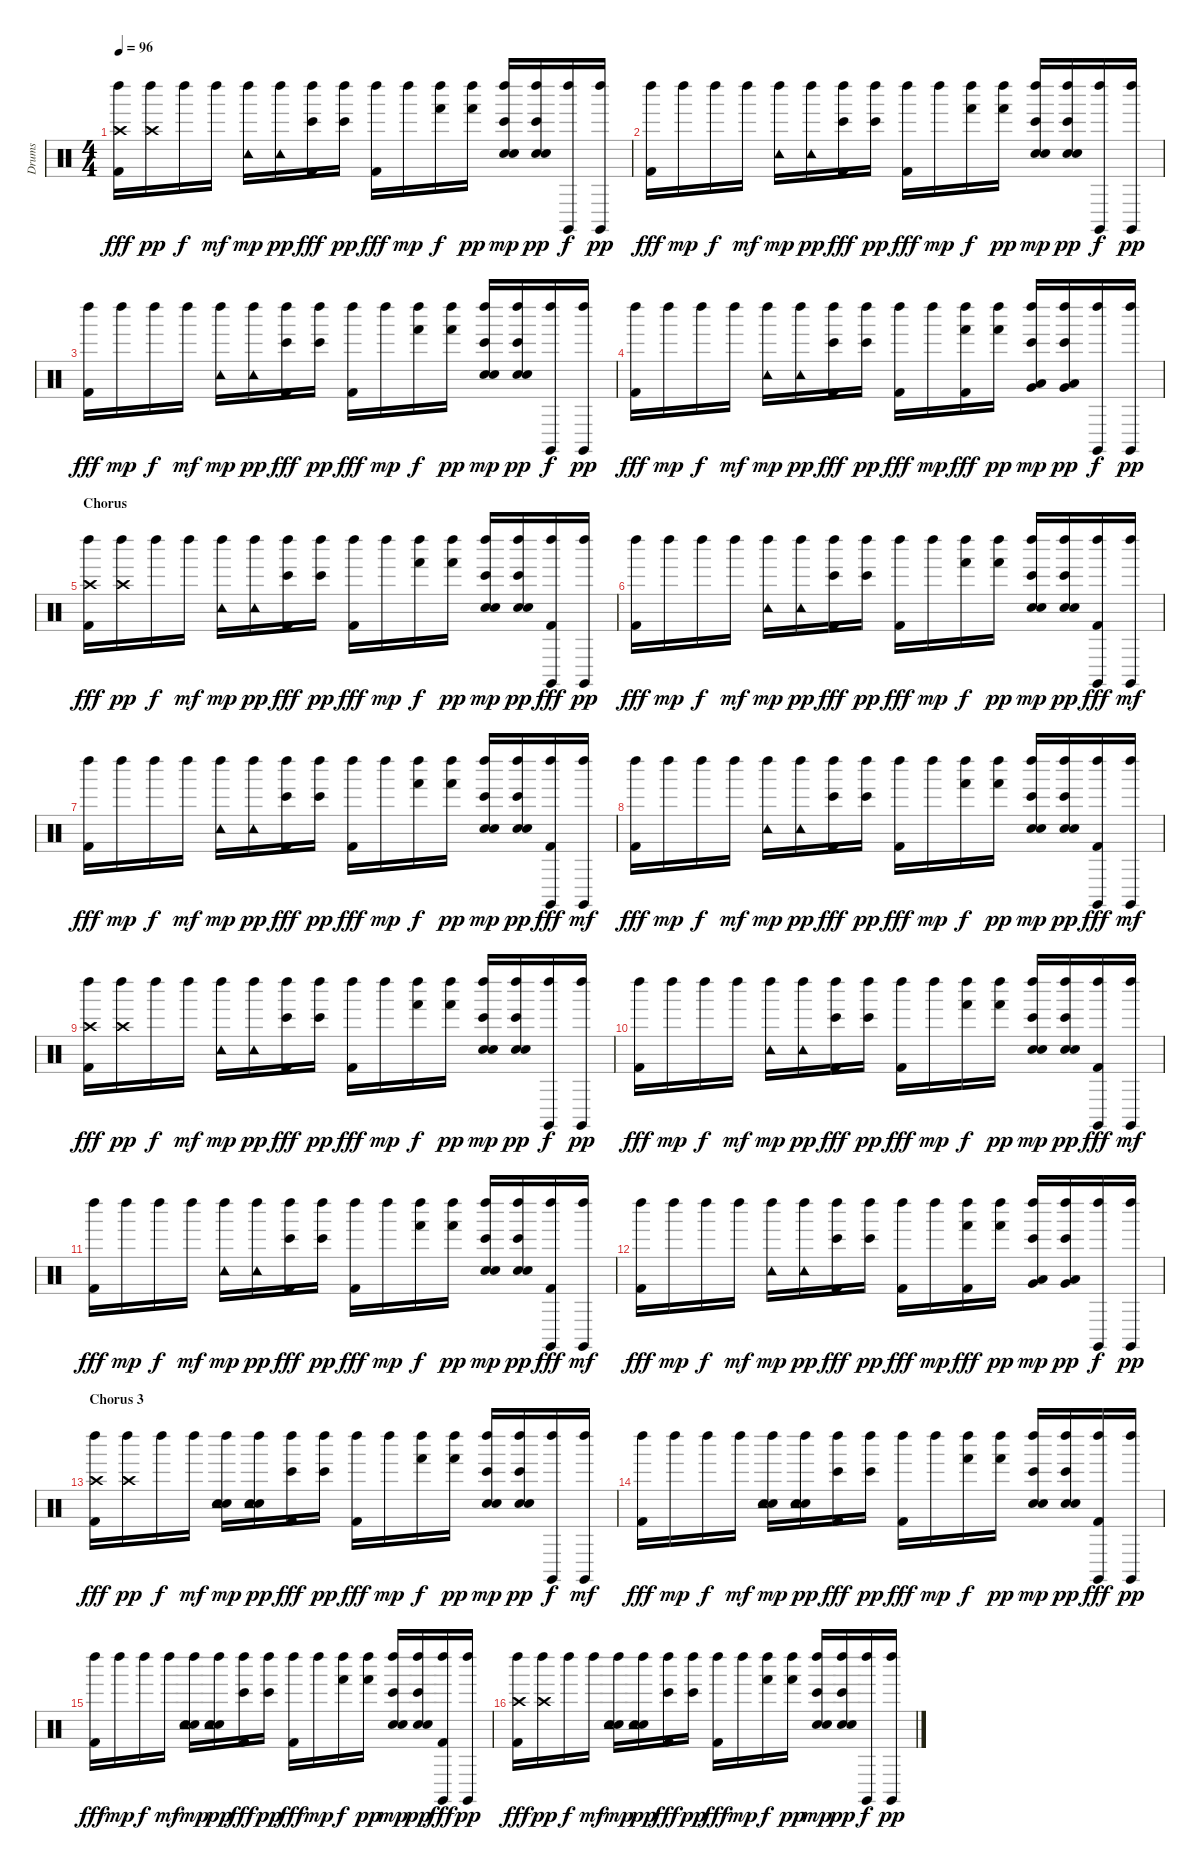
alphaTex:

\track ("Drums" "Drums") {instrument percussion}
\staff {score}
\articulation defaults
\ts (4 4)
\tempo 96
\clef neutral
\ks c
("Left Maraca (hit)" "Crash high (hit)" "Kick (hit) 2").16{dy fff} ("Left Maraca (hit)" "Crash high (hit)").16{dy pp} "Left Maraca (hit)".16{dy f} "Left Maraca (hit)".16{dy mf} ("Left Maraca (hit)" "Tambourine (hit)").16{dy mp} ("Left Maraca (hit)" "Tambourine (hit)").16{dy pp} ("Left Maraca (hit)" "Bongo High (hit)" "Kick (hit) 2").16{dy fff} ("Left Maraca (hit)" "Bongo High (hit)").16{dy pp} ("Left Maraca (hit)" "Kick (hit) 2").16{dy fff} "Left Maraca (hit)".16{dy mp} ("Left Maraca (hit)" "Hand (hit)").16{dy f} ("Left Maraca (hit)" "Hand (hit)").16{dy pp} ("Left Maraca (hit)" "Bongo High (hit)" "Snare (hit) 2" "Electric Snare (hit)").16{dy mp} ("Left Maraca (hit)" "Bongo High (hit)" "Snare (hit) 2" "Electric Snare (hit)").16{dy pp} ("Left Maraca (hit)" "Claves (hit)").16{dy f} ("Left Maraca (hit)" "Claves (hit)").16{dy pp} |
("Left Maraca (hit)" "Kick (hit) 2").16{dy fff} "Left Maraca (hit)".16{dy mp} "Left Maraca (hit)".16{dy f} "Left Maraca (hit)".16{dy mf} ("Left Maraca (hit)" "Tambourine (hit)").16{dy mp} ("Left Maraca (hit)" "Tambourine (hit)").16{dy pp} ("Left Maraca (hit)" "Bongo High (hit)" "Kick (hit) 2").16{dy fff} ("Left Maraca (hit)" "Bongo High (hit)").16{dy pp} ("Left Maraca (hit)" "Kick (hit) 2").16{dy fff} "Left Maraca (hit)".16{dy mp} ("Left Maraca (hit)" "Hand (hit)").16{dy f} ("Left Maraca (hit)" "Hand (hit)").16{dy pp} ("Left Maraca (hit)" "Bongo High (hit)" "Snare (hit) 2" "Electric Snare (hit)").16{dy mp} ("Left Maraca (hit)" "Bongo High (hit)" "Snare (hit) 2" "Electric Snare (hit)").16{dy pp} ("Left Maraca (hit)" "Claves (hit)").16{dy f} ("Left Maraca (hit)" "Claves (hit)").16{dy pp} |
("Left Maraca (hit)" "Kick (hit) 2").16{dy fff} "Left Maraca (hit)".16{dy mp} "Left Maraca (hit)".16{dy f} "Left Maraca (hit)".16{dy mf} ("Left Maraca (hit)" "Tambourine (hit)").16{dy mp} ("Left Maraca (hit)" "Tambourine (hit)").16{dy pp} ("Left Maraca (hit)" "Bongo High (hit)" "Kick (hit) 2").16{dy fff} ("Left Maraca (hit)" "Bongo High (hit)").16{dy pp} ("Left Maraca (hit)" "Kick (hit) 2").16{dy fff} "Left Maraca (hit)".16{dy mp} ("Left Maraca (hit)" "Hand (hit)").16{dy f} ("Left Maraca (hit)" "Hand (hit)").16{dy pp} ("Left Maraca (hit)" "Bongo High (hit)" "Snare (hit) 2" "Electric Snare (hit)").16{dy mp} ("Left Maraca (hit)" "Bongo High (hit)" "Snare (hit) 2" "Electric Snare (hit)").16{dy pp} ("Left Maraca (hit)" "Claves (hit)").16{dy f} ("Left Maraca (hit)" "Claves (hit)").16{dy pp} |
("Left Maraca (hit)" "Kick (hit) 2").16{dy fff} "Left Maraca (hit)".16{dy mp} "Left Maraca (hit)".16{dy f} "Left Maraca (hit)".16{dy mf} ("Left Maraca (hit)" "Tambourine (hit)").16{dy mp} ("Left Maraca (hit)" "Tambourine (hit)").16{dy pp} ("Left Maraca (hit)" "Bongo High (hit)" "Kick (hit) 2").16{dy fff} ("Left Maraca (hit)" "Bongo High (hit)").16{dy pp} ("Left Maraca (hit)" "Kick (hit) 2").16{dy fff} "Left Maraca (hit)".16{dy mp} ("Left Maraca (hit)" "Hand (hit)" "Kick (hit) 2").16{dy fff} ("Left Maraca (hit)" "Hand (hit)").16{dy pp} ("Left Maraca (hit)" "Bongo High (hit)" "Very Low Tom (hit)" "Low Floor Tom (hit)").16{dy mp} ("Left Maraca (hit)" "Bongo High (hit)" "Very Low Tom (hit)" "Low Floor Tom (hit)").16{dy pp} ("Left Maraca (hit)" "Claves (hit)").16{dy f} ("Left Maraca (hit)" "Claves (hit)").16{dy pp} |
\section ("" "Chorus")
("Left Maraca (hit)" "Crash high (hit)" "Kick (hit) 2").16{dy fff} ("Left Maraca (hit)" "Crash high (hit)").16{dy pp} "Left Maraca (hit)".16{dy f} "Left Maraca (hit)".16{dy mf} ("Left Maraca (hit)" "Tambourine (hit)").16{dy mp} ("Left Maraca (hit)" "Tambourine (hit)").16{dy pp} ("Left Maraca (hit)" "Bongo High (hit)" "Kick (hit) 2").16{dy fff} ("Left Maraca (hit)" "Bongo High (hit)").16{dy pp} ("Left Maraca (hit)" "Kick (hit) 2").16{dy fff} "Left Maraca (hit)".16{dy mp} ("Left Maraca (hit)" "Hand (hit)").16{dy f} ("Left Maraca (hit)" "Hand (hit)").16{dy pp} ("Left Maraca (hit)" "Bongo High (hit)" "Snare (hit) 2" "Electric Snare (hit)").16{dy mp} ("Left Maraca (hit)" "Bongo High (hit)" "Snare (hit) 2" "Electric Snare (hit)").16{dy pp} ("Left Maraca (hit)" "Claves (hit)" "Kick (hit) 2").16{dy fff} ("Left Maraca (hit)" "Claves (hit)").16{dy pp} |
("Left Maraca (hit)" "Kick (hit) 2").16{dy fff} "Left Maraca (hit)".16{dy mp} "Left Maraca (hit)".16{dy f} "Left Maraca (hit)".16{dy mf} ("Left Maraca (hit)" "Tambourine (hit)").16{dy mp} ("Left Maraca (hit)" "Tambourine (hit)").16{dy pp} ("Left Maraca (hit)" "Bongo High (hit)" "Kick (hit) 2").16{dy fff} ("Left Maraca (hit)" "Bongo High (hit)").16{dy pp} ("Left Maraca (hit)" "Kick (hit) 2").16{dy fff} "Left Maraca (hit)".16{dy mp} ("Left Maraca (hit)" "Hand (hit)").16{dy f} ("Left Maraca (hit)" "Hand (hit)").16{dy pp} ("Left Maraca (hit)" "Bongo High (hit)" "Snare (hit) 2" "Electric Snare (hit)").16{dy mp} ("Left Maraca (hit)" "Bongo High (hit)" "Snare (hit) 2" "Electric Snare (hit)").16{dy pp} ("Claves (hit)" "Left Maraca (hit)" "Kick (hit) 2").16{dy fff} ("Claves (hit)" "Left Maraca (hit)").16{dy mf} |
("Left Maraca (hit)" "Kick (hit) 2").16{dy fff} "Left Maraca (hit)".16{dy mp} "Left Maraca (hit)".16{dy f} "Left Maraca (hit)".16{dy mf} ("Left Maraca (hit)" "Tambourine (hit)").16{dy mp} ("Left Maraca (hit)" "Tambourine (hit)").16{dy pp} ("Left Maraca (hit)" "Bongo High (hit)" "Kick (hit) 2").16{dy fff} ("Left Maraca (hit)" "Bongo High (hit)").16{dy pp} ("Left Maraca (hit)" "Kick (hit) 2").16{dy fff} "Left Maraca (hit)".16{dy mp} ("Left Maraca (hit)" "Hand (hit)").16{dy f} ("Left Maraca (hit)" "Hand (hit)").16{dy pp} ("Left Maraca (hit)" "Bongo High (hit)" "Snare (hit) 2" "Electric Snare (hit)").16{dy mp} ("Left Maraca (hit)" "Bongo High (hit)" "Snare (hit) 2" "Electric Snare (hit)").16{dy pp} ("Claves (hit)" "Left Maraca (hit)" "Kick (hit) 2").16{dy fff} ("Claves (hit)" "Left Maraca (hit)").16{dy mf} |
("Left Maraca (hit)" "Kick (hit) 2").16{dy fff} "Left Maraca (hit)".16{dy mp} "Left Maraca (hit)".16{dy f} "Left Maraca (hit)".16{dy mf} ("Left Maraca (hit)" "Tambourine (hit)").16{dy mp} ("Left Maraca (hit)" "Tambourine (hit)").16{dy pp} ("Left Maraca (hit)" "Bongo High (hit)" "Kick (hit) 2").16{dy fff} ("Left Maraca (hit)" "Bongo High (hit)").16{dy pp} ("Left Maraca (hit)" "Kick (hit) 2").16{dy fff} "Left Maraca (hit)".16{dy mp} ("Left Maraca (hit)" "Hand (hit)").16{dy f} ("Left Maraca (hit)" "Hand (hit)").16{dy pp} ("Left Maraca (hit)" "Bongo High (hit)" "Snare (hit) 2" "Electric Snare (hit)").16{dy mp} ("Left Maraca (hit)" "Bongo High (hit)" "Snare (hit) 2" "Electric Snare (hit)").16{dy pp} ("Claves (hit)" "Left Maraca (hit)" "Kick (hit) 2").16{dy fff} ("Claves (hit)" "Left Maraca (hit)").16{dy mf} |
("Left Maraca (hit)" "Crash high (hit)" "Kick (hit) 2").16{dy fff} ("Left Maraca (hit)" "Crash high (hit)").16{dy pp} "Left Maraca (hit)".16{dy f} "Left Maraca (hit)".16{dy mf} ("Left Maraca (hit)" "Tambourine (hit)").16{dy mp} ("Left Maraca (hit)" "Tambourine (hit)").16{dy pp} ("Left Maraca (hit)" "Bongo High (hit)" "Kick (hit) 2").16{dy fff} ("Left Maraca (hit)" "Bongo High (hit)").16{dy pp} ("Left Maraca (hit)" "Kick (hit) 2").16{dy fff} "Left Maraca (hit)".16{dy mp} ("Left Maraca (hit)" "Hand (hit)").16{dy f} ("Left Maraca (hit)" "Hand (hit)").16{dy pp} ("Left Maraca (hit)" "Bongo High (hit)" "Snare (hit) 2" "Electric Snare (hit)").16{dy mp} ("Left Maraca (hit)" "Bongo High (hit)" "Snare (hit) 2" "Electric Snare (hit)").16{dy pp} ("Left Maraca (hit)" "Claves (hit)").16{dy f} ("Left Maraca (hit)" "Claves (hit)").16{dy pp} |
("Left Maraca (hit)" "Kick (hit) 2").16{dy fff} "Left Maraca (hit)".16{dy mp} "Left Maraca (hit)".16{dy f} "Left Maraca (hit)".16{dy mf} ("Left Maraca (hit)" "Tambourine (hit)").16{dy mp} ("Left Maraca (hit)" "Tambourine (hit)").16{dy pp} ("Left Maraca (hit)" "Bongo High (hit)" "Kick (hit) 2").16{dy fff} ("Left Maraca (hit)" "Bongo High (hit)").16{dy pp} ("Left Maraca (hit)" "Kick (hit) 2").16{dy fff} "Left Maraca (hit)".16{dy mp} ("Left Maraca (hit)" "Hand (hit)").16{dy f} ("Left Maraca (hit)" "Hand (hit)").16{dy pp} ("Left Maraca (hit)" "Bongo High (hit)" "Snare (hit) 2" "Electric Snare (hit)").16{dy mp} ("Left Maraca (hit)" "Bongo High (hit)" "Snare (hit) 2" "Electric Snare (hit)").16{dy pp} ("Claves (hit)" "Left Maraca (hit)" "Kick (hit) 2").16{dy fff} ("Claves (hit)" "Left Maraca (hit)").16{dy mf} |
("Left Maraca (hit)" "Kick (hit) 2").16{dy fff} "Left Maraca (hit)".16{dy mp} "Left Maraca (hit)".16{dy f} "Left Maraca (hit)".16{dy mf} ("Left Maraca (hit)" "Tambourine (hit)").16{dy mp} ("Left Maraca (hit)" "Tambourine (hit)").16{dy pp} ("Left Maraca (hit)" "Bongo High (hit)" "Kick (hit) 2").16{dy fff} ("Left Maraca (hit)" "Bongo High (hit)").16{dy pp} ("Left Maraca (hit)" "Kick (hit) 2").16{dy fff} "Left Maraca (hit)".16{dy mp} ("Left Maraca (hit)" "Hand (hit)").16{dy f} ("Left Maraca (hit)" "Hand (hit)").16{dy pp} ("Left Maraca (hit)" "Bongo High (hit)" "Snare (hit) 2" "Electric Snare (hit)").16{dy mp} ("Left Maraca (hit)" "Bongo High (hit)" "Snare (hit) 2" "Electric Snare (hit)").16{dy pp} ("Claves (hit)" "Left Maraca (hit)" "Kick (hit) 2").16{dy fff} ("Claves (hit)" "Left Maraca (hit)").16{dy mf} |
("Left Maraca (hit)" "Kick (hit) 2").16{dy fff} "Left Maraca (hit)".16{dy mp} "Left Maraca (hit)".16{dy f} "Left Maraca (hit)".16{dy mf} ("Left Maraca (hit)" "Tambourine (hit)").16{dy mp} ("Left Maraca (hit)" "Tambourine (hit)").16{dy pp} ("Left Maraca (hit)" "Bongo High (hit)" "Kick (hit) 2").16{dy fff} ("Left Maraca (hit)" "Bongo High (hit)").16{dy pp} ("Left Maraca (hit)" "Kick (hit) 2").16{dy fff} "Left Maraca (hit)".16{dy mp} ("Left Maraca (hit)" "Hand (hit)" "Kick (hit) 2").16{dy fff} ("Left Maraca (hit)" "Hand (hit)").16{dy pp} ("Left Maraca (hit)" "Bongo High (hit)" "Very Low Tom (hit)" "Low Floor Tom (hit)").16{dy mp} ("Left Maraca (hit)" "Bongo High (hit)" "Very Low Tom (hit)" "Low Floor Tom (hit)").16{dy pp} ("Left Maraca (hit)" "Claves (hit)").16{dy f} ("Left Maraca (hit)" "Claves (hit)").16{dy pp} |
\section ("" "Chorus 3")
("Left Maraca (hit)" "Crash high (hit)" "Kick (hit) 2").16{dy fff} ("Left Maraca (hit)" "Crash high (hit)").16{dy pp} "Left Maraca (hit)".16{dy f} "Left Maraca (hit)".16{dy mf} ("Left Maraca (hit)" "Snare (hit) 2" "Tambourine (hit)" "Electric Snare (hit)").16{dy mp} ("Left Maraca (hit)" "Snare (hit) 2" "Tambourine (hit)" "Electric Snare (hit)").16{dy pp} ("Left Maraca (hit)" "Bongo High (hit)" "Kick (hit) 2").16{dy fff} ("Left Maraca (hit)" "Bongo High (hit)").16{dy pp} ("Left Maraca (hit)" "Kick (hit) 2").16{dy fff} "Left Maraca (hit)".16{dy mp} ("Left Maraca (hit)" "Hand (hit)").16{dy f} ("Left Maraca (hit)" "Hand (hit)").16{dy pp} ("Left Maraca (hit)" "Bongo High (hit)" "Snare (hit) 2" "Electric Snare (hit)").16{dy mp} ("Left Maraca (hit)" "Bongo High (hit)" "Snare (hit) 2" "Electric Snare (hit)").16{dy pp} ("Claves (hit)" "Left Maraca (hit)").16{dy f} ("Claves (hit)" "Left Maraca (hit)").16{dy mf} |
("Left Maraca (hit)" "Kick (hit) 2").16{dy fff} "Left Maraca (hit)".16{dy mp} "Left Maraca (hit)".16{dy f} "Left Maraca (hit)".16{dy mf} ("Left Maraca (hit)" "Snare (hit) 2" "Tambourine (hit)" "Electric Snare (hit)").16{dy mp} ("Left Maraca (hit)" "Snare (hit) 2" "Tambourine (hit)" "Electric Snare (hit)").16{dy pp} ("Left Maraca (hit)" "Bongo High (hit)" "Kick (hit) 2").16{dy fff} ("Left Maraca (hit)" "Bongo High (hit)").16{dy pp} ("Left Maraca (hit)" "Kick (hit) 2").16{dy fff} "Left Maraca (hit)".16{dy mp} ("Left Maraca (hit)" "Hand (hit)").16{dy f} ("Left Maraca (hit)" "Hand (hit)").16{dy pp} ("Left Maraca (hit)" "Bongo High (hit)" "Snare (hit) 2" "Electric Snare (hit)").16{dy mp} ("Left Maraca (hit)" "Bongo High (hit)" "Snare (hit) 2" "Electric Snare (hit)").16{dy pp} ("Left Maraca (hit)" "Claves (hit)" "Kick (hit) 2").16{dy fff} ("Left Maraca (hit)" "Claves (hit)").16{dy pp} |
("Left Maraca (hit)" "Kick (hit) 2").16{dy fff} "Left Maraca (hit)".16{dy mp} "Left Maraca (hit)".16{dy f} "Left Maraca (hit)".16{dy mf} ("Left Maraca (hit)" "Snare (hit) 2" "Tambourine (hit)" "Electric Snare (hit)").16{dy mp} ("Left Maraca (hit)" "Snare (hit) 2" "Tambourine (hit)" "Electric Snare (hit)").16{dy pp} ("Left Maraca (hit)" "Bongo High (hit)" "Kick (hit) 2").16{dy fff} ("Left Maraca (hit)" "Bongo High (hit)").16{dy pp} ("Left Maraca (hit)" "Kick (hit) 2").16{dy fff} "Left Maraca (hit)".16{dy mp} ("Left Maraca (hit)" "Hand (hit)").16{dy f} ("Left Maraca (hit)" "Hand (hit)").16{dy pp} ("Left Maraca (hit)" "Bongo High (hit)" "Snare (hit) 2" "Electric Snare (hit)").16{dy mp} ("Left Maraca (hit)" "Bongo High (hit)" "Snare (hit) 2" "Electric Snare (hit)").16{dy pp} ("Left Maraca (hit)" "Claves (hit)" "Kick (hit) 2").16{dy fff} ("Left Maraca (hit)" "Claves (hit)").16{dy pp} |
("Left Maraca (hit)" "Crash high (hit)" "Kick (hit) 2").16{dy fff} ("Left Maraca (hit)" "Crash high (hit)").16{dy pp} "Left Maraca (hit)".16{dy f} "Left Maraca (hit)".16{dy mf} ("Left Maraca (hit)" "Snare (hit) 2" "Tambourine (hit)" "Electric Snare (hit)").16{dy mp} ("Left Maraca (hit)" "Snare (hit) 2" "Tambourine (hit)" "Electric Snare (hit)").16{dy pp} ("Left Maraca (hit)" "Bongo High (hit)" "Kick (hit) 2").16{dy fff} ("Left Maraca (hit)" "Bongo High (hit)").16{dy pp} ("Left Maraca (hit)" "Kick (hit) 2").16{dy fff} "Left Maraca (hit)".16{dy mp} ("Left Maraca (hit)" "Hand (hit)").16{dy f} ("Left Maraca (hit)" "Hand (hit)").16{dy pp} ("Left Maraca (hit)" "Bongo High (hit)" "Snare (hit) 2" "Electric Snare (hit)").16{dy mp} ("Left Maraca (hit)" "Bongo High (hit)" "Snare (hit) 2" "Electric Snare (hit)").16{dy pp} ("Left Maraca (hit)" "Claves (hit)").16{dy f} ("Left Maraca (hit)" "Claves (hit)").16{dy pp}
